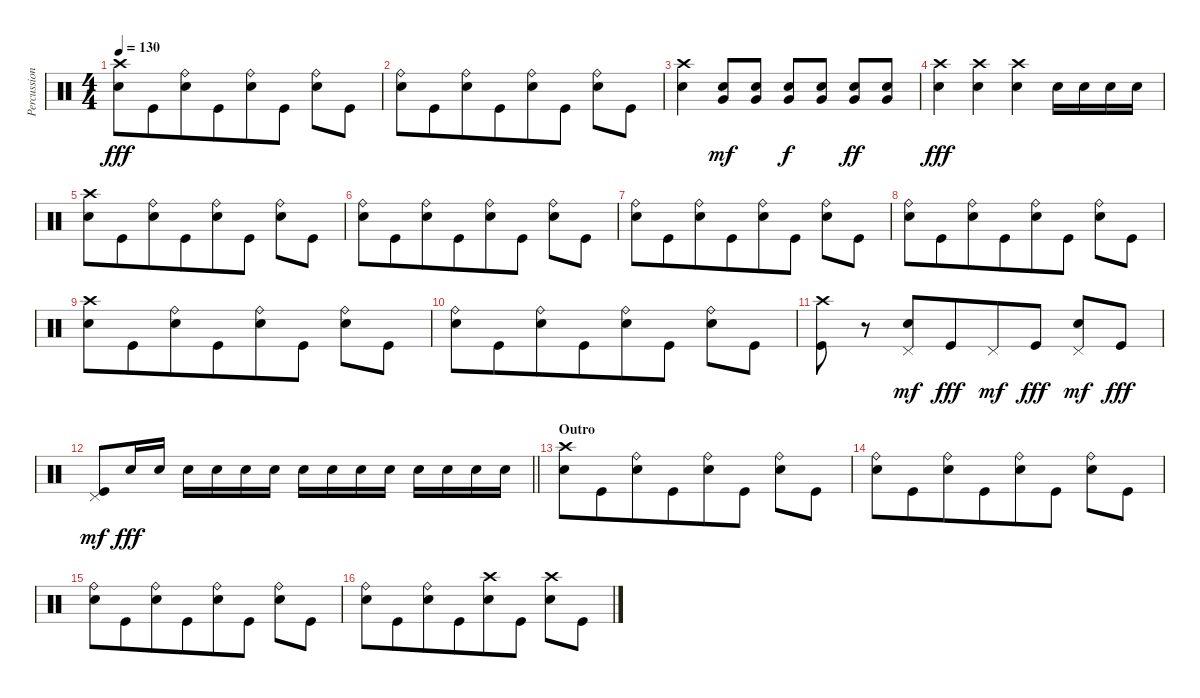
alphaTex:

\track ("Percussion" "Percussion") {instrument percussion bank 255}
\staff {score}
\articulation defaults
\ts (4 4)
\tempo 130
\clef neutral
\ks c
("Snare (hit) 2" "Crash high (hit)").8{dy fff} "Kick (hit)".8{beam merge} ("Snare (hit) 2" "Ride (bell)").8 "Kick (hit)".8{beam merge} ("Snare (hit) 2" "Ride (bell)").8{beam merge} "Kick (hit)".8 ("Snare (hit) 2" "Ride (bell)").8{beam merge} "Kick (hit)".8 |
("Snare (hit) 2" "Ride (bell)").8 "Kick (hit)".8{beam merge} ("Snare (hit) 2" "Ride (bell)").8 "Kick (hit)".8{beam merge} ("Snare (hit) 2" "Ride (bell)").8{beam merge} "Kick (hit)".8 ("Snare (hit) 2" "Ride (bell)").8{beam merge} "Kick (hit)".8 |
("Snare (hit) 2" "Crash high (hit)").4 ("Very Low Tom (hit)" "Snare (hit) 2").8{dy mf} ("Very Low Tom (hit)" "Snare (hit) 2").8 ("Very Low Tom (hit)" "Snare (hit) 2").8{dy f} ("Very Low Tom (hit)" "Snare (hit) 2").8 ("Very Low Tom (hit)" "Snare (hit) 2").8{dy ff} ("Very Low Tom (hit)" "Snare (hit) 2").8 |
("Snare (hit) 2" "Crash high (hit)").4{dy fff beam merge} ("Snare (hit) 2" "Crash high (hit)").4{beam merge} ("Snare (hit) 2" "Crash high (hit)").4{beam merge} "Snare (hit) 2".16 "Snare (hit) 2".16{beam merge} "Snare (hit) 2".16 "Snare (hit) 2".16 |
("Snare (hit) 2" "Crash high (hit)").8 "Kick (hit)".8{beam merge} ("Snare (hit) 2" "Ride (bell)").8 "Kick (hit)".8{beam merge} ("Snare (hit) 2" "Ride (bell)").8{beam merge} "Kick (hit)".8 ("Snare (hit) 2" "Ride (bell)").8{beam merge} "Kick (hit)".8 |
("Snare (hit) 2" "Ride (bell)").8 "Kick (hit)".8{beam merge} ("Snare (hit) 2" "Ride (bell)").8 "Kick (hit)".8{beam merge} ("Snare (hit) 2" "Ride (bell)").8{beam merge} "Kick (hit)".8 ("Snare (hit) 2" "Ride (bell)").8{beam merge} "Kick (hit)".8 |
("Snare (hit) 2" "Ride (bell)").8 "Kick (hit)".8{beam merge} ("Snare (hit) 2" "Ride (bell)").8 "Kick (hit)".8{beam merge} ("Snare (hit) 2" "Ride (bell)").8{beam merge} "Kick (hit)".8 ("Snare (hit) 2" "Ride (bell)").8{beam merge} "Kick (hit)".8 |
("Snare (hit) 2" "Ride (bell)").8 "Kick (hit)".8{beam merge} ("Snare (hit) 2" "Ride (bell)").8 "Kick (hit)".8{beam merge} ("Snare (hit) 2" "Ride (bell)").8{beam merge} "Kick (hit)".8 ("Snare (hit) 2" "Ride (bell)").8{beam merge} "Kick (hit)".8 |
("Snare (hit) 2" "Crash high (hit)").8 "Kick (hit)".8{beam merge} ("Snare (hit) 2" "Ride (bell)").8 "Kick (hit)".8{beam merge} ("Snare (hit) 2" "Ride (bell)").8{beam merge} "Kick (hit)".8 ("Snare (hit) 2" "Ride (bell)").8{beam merge} "Kick (hit)".8 |
("Snare (hit) 2" "Ride (bell)").8 "Kick (hit)".8{beam merge} ("Snare (hit) 2" "Ride (bell)").8 "Kick (hit)".8{beam merge} ("Snare (hit) 2" "Ride (bell)").8{beam merge} "Kick (hit)".8 ("Snare (hit) 2" "Ride (bell)").8{beam merge} "Kick (hit)".8 |
("Kick (hit)" "Crash high (hit)").8 r.8{beam merge} ("Snare (hit) 2" "Pedal Hi-Hat (hit)").8{dy mf} "Kick (hit)".8{dy fff beam merge} "Pedal Hi-Hat (hit)".8{dy mf beam merge} "Kick (hit)".8{dy fff} ("Snare (hit) 2" "Pedal Hi-Hat (hit)").8{dy mf beam merge} "Kick (hit)".8{dy fff} |
\barLineRight lightlight
("Kick (hit)" "Pedal Hi-Hat (hit)").8{dy mf} "Snare (hit) 2".16{dy fff} "Snare (hit) 2".16 "Snare (hit) 2".16 "Snare (hit) 2".16 "Snare (hit) 2".16 "Snare (hit) 2".16 "Snare (hit) 2".16 "Snare (hit) 2".16 "Snare (hit) 2".16{beam merge} "Snare (hit) 2".16 "Snare (hit) 2".16 "Snare (hit) 2".16 "Snare (hit) 2".16 "Snare (hit) 2".16 |
\section ("" "Outro")
("Snare (hit) 2" "Crash high (hit)").8 "Kick (hit)".8{beam merge} ("Snare (hit) 2" "Ride (bell)").8 "Kick (hit)".8{beam merge} ("Snare (hit) 2" "Ride (bell)").8{beam merge} "Kick (hit)".8 ("Snare (hit) 2" "Ride (bell)").8{beam merge} "Kick (hit)".8 |
("Snare (hit) 2" "Ride (bell)").8 "Kick (hit)".8{beam merge} ("Snare (hit) 2" "Ride (bell)").8 "Kick (hit)".8{beam merge} ("Snare (hit) 2" "Ride (bell)").8{beam merge} "Kick (hit)".8 ("Snare (hit) 2" "Ride (bell)").8{beam merge} "Kick (hit)".8 |
("Snare (hit) 2" "Ride (bell)").8 "Kick (hit)".8{beam merge} ("Snare (hit) 2" "Ride (bell)").8 "Kick (hit)".8{beam merge} ("Snare (hit) 2" "Ride (bell)").8{beam merge} "Kick (hit)".8 ("Snare (hit) 2" "Ride (bell)").8{beam merge} "Kick (hit)".8 |
("Snare (hit) 2" "Ride (bell)").8 "Kick (hit)".8{beam merge} ("Snare (hit) 2" "Ride (bell)").8 "Kick (hit)".8{beam merge} ("Snare (hit) 2" "Crash high (hit)").8{beam merge} "Kick (hit)".8 ("Snare (hit) 2" "Crash high (hit)").8{beam merge} "Kick (hit)".8
